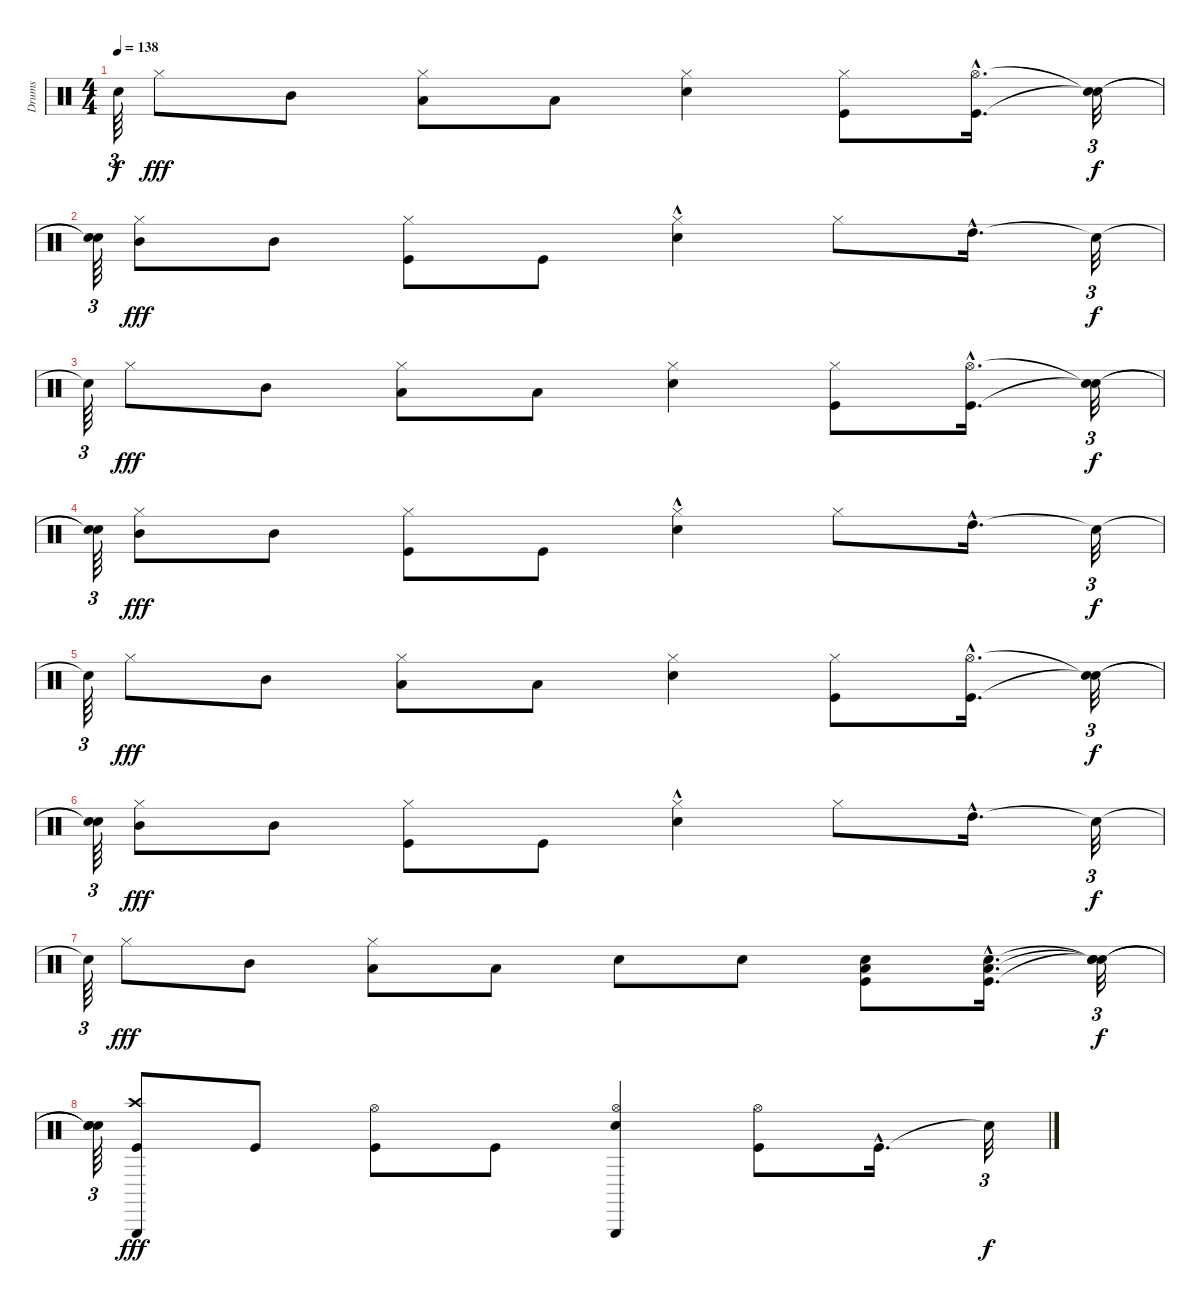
\track ("Drums" "Drums") {instrument percussion}
\staff {score}
\articulation defaults
\ts (4 4)
\tempo 138
\clef neutral
\ks c "Snare (hit)"{t}.64{tu (3 2) dy f} "Hi-Hat (closed)".8{dy fff} "Mid Tom (hit)".8
("Low Tom (hit)" "Hi-Hat (closed)").8 "Low Tom (hit)".8 ("Snare (hit) 2" "Hi-Hat (closed)").4 ("Kick (hit)" "Hi-Hat (closed)").8 ("Kick (hit)"{hac} "Hi-Hat (open)"{hac}).16{d} ("Snare (hit)"{t} "Snare (hit)"{t}).32{tu (3 2) dy f} |
("Snare (hit)"{t} "Snare (hit)"{t}).64{tu (3 2)} ("Mid Tom (hit)" "Hi-Hat (closed)").8{dy fff} "Mid Tom (hit)".8 ("Kick (hit)" "Hi-Hat (closed)").8 "Kick (hit)".8 ("Snare (hit) 2"{hac} "Hi-Hat (closed)").4 "Hi-Hat (closed)".8 "High Tom (hit)"{hac}.16{d} "Snare (hit)"{t}.32{tu (3 2) dy f} |
"Snare (hit)"{t}.64{tu (3 2)} "Hi-Hat (closed)".8{dy fff} "Mid Tom (hit)".8 ("Low Tom (hit)" "Hi-Hat (closed)").8 "Low Tom (hit)".8 ("Snare (hit) 2" "Hi-Hat (closed)").4 ("Kick (hit)" "Hi-Hat (closed)").8 ("Kick (hit)"{hac} "Hi-Hat (open)"{hac}).16{d} ("Snare (hit)"{t} "Snare (hit)"{t}).32{tu (3 2) dy f} |
("Snare (hit)"{t} "Snare (hit)"{t}).64{tu (3 2)} ("Mid Tom (hit)" "Hi-Hat (closed)").8{dy fff} "Mid Tom (hit)".8 ("Kick (hit)" "Hi-Hat (closed)").8 "Kick (hit)".8 ("Snare (hit) 2"{hac} "Hi-Hat (closed)").4 "Hi-Hat (closed)".8 "High Tom (hit)"{hac}.16{d} "Snare (hit)"{t}.32{tu (3 2) dy f} |
"Snare (hit)"{t}.64{tu (3 2)} "Hi-Hat (closed)".8{dy fff} "Mid Tom (hit)".8 ("Low Tom (hit)" "Hi-Hat (closed)").8 "Low Tom (hit)".8 ("Snare (hit) 2" "Hi-Hat (closed)").4 ("Kick (hit)" "Hi-Hat (closed)").8 ("Kick (hit)"{hac} "Hi-Hat (open)"{hac}).16{d} ("Snare (hit)"{t} "Snare (hit)"{t}).32{tu (3 2) dy f} |
("Snare (hit)"{t} "Snare (hit)"{t}).64{tu (3 2)} ("Mid Tom (hit)" "Hi-Hat (closed)").8{dy fff} "Mid Tom (hit)".8 ("Kick (hit)" "Hi-Hat (closed)").8 "Kick (hit)".8 ("Snare (hit) 2"{hac} "Hi-Hat (closed)").4 "Hi-Hat (closed)".8 "High Tom (hit)"{hac}.16{d} "Snare (hit)"{t}.32{tu (3 2) dy f} |
"Snare (hit)"{t}.64{tu (3 2)} "Hi-Hat (closed)".8{dy fff} "Mid Tom (hit)".8 ("Low Tom (hit)" "Hi-Hat (closed)").8 "Low Tom (hit)".8 "Snare (hit) 2".8 "Snare (hit) 2".8 ("Kick (hit)" "Snare (hit) 2" "Low Floor Tom (hit)").8 ("Kick (hit)"{hac} "Snare (hit) 2"{hac} "Low Floor Tom (hit)"{hac}).16{d} ("Snare (hit)"{t} "Snare (hit)"{t} "Snare (hit)"{t}).32{tu (3 2) dy f} |
("Snare (hit)"{t} "Snare (hit)"{t} "Snare (hit)"{t}).64{tu (3 2)} ("Kick (hit)" "Crash high (hit)" "Triangle (hit)").8{dy fff} "Kick (hit)".8 ("Kick (hit)" "Hi-Hat (open)").8 "Kick (hit)".8 ("Snare (hit) 2" "Hi-Hat (open)" "Triangle (hit)").4 ("Kick (hit)" "Hi-Hat (open)").8 "Kick (hit)"{hac}.16{d} "Snare (hit)"{t}.32{tu (3 2) dy f}
